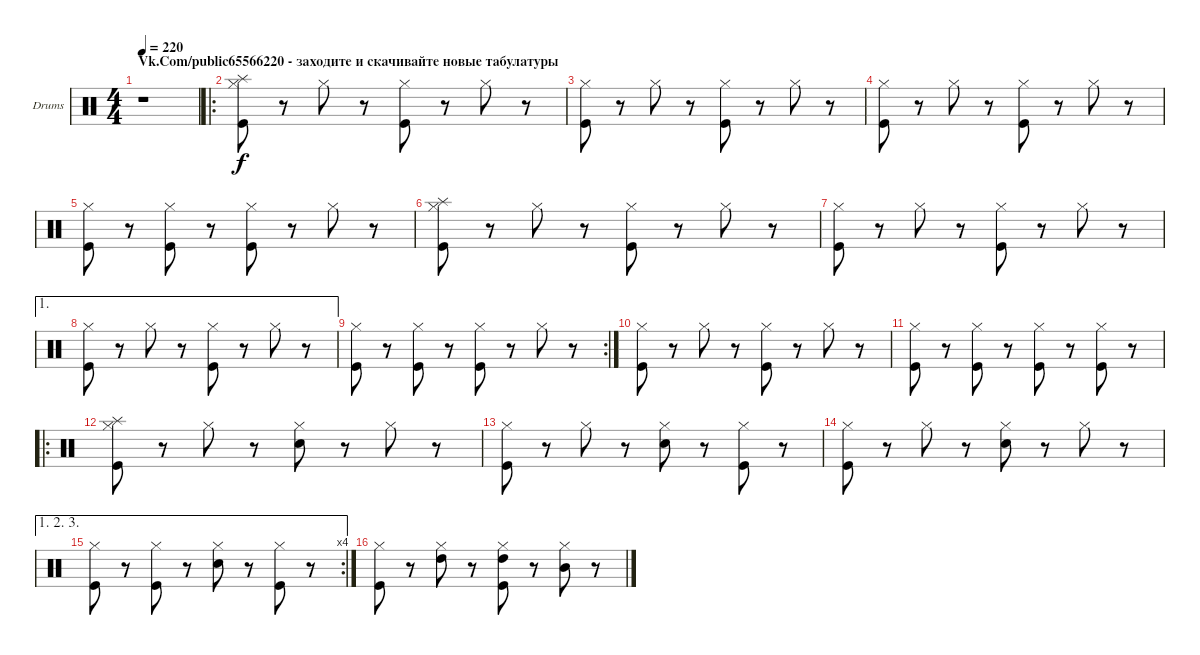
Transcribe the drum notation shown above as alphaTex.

\bracketExtendMode groupsimilarinstruments
\firstSystemTrackNameOrientation horizontal
\otherSystemsTrackNameOrientation horizontal
\track ("Ударные" "Drums") {instrument percussion}
\staff {score}
\articulation defaults
\ts (4 4)
\section ("" "Vk.Com/public65566220 - заходите и скачивайте новые табулатуры")
\tempo 220
\clef neutral
\ks c
r.1{dy f} |
\ro
("Hi-Hat (closed)" "Splash (hit)" "Kick (hit)").8 r.8 "Hi-Hat (closed)".8 r.8 ("Hi-Hat (closed)" "Kick (hit)").8 r.8 "Hi-Hat (closed)".8 r.8 |
("Hi-Hat (closed)" "Kick (hit)").8 r.8 "Hi-Hat (closed)".8 r.8 ("Hi-Hat (closed)" "Kick (hit)").8 r.8 "Hi-Hat (closed)".8 r.8 |
("Hi-Hat (closed)" "Kick (hit)").8 r.8 "Hi-Hat (closed)".8 r.8 ("Hi-Hat (closed)" "Kick (hit)").8 r.8 "Hi-Hat (closed)".8 r.8 |
("Hi-Hat (closed)" "Kick (hit)").8 r.8 ("Hi-Hat (closed)" "Kick (hit)").8 r.8 ("Hi-Hat (closed)" "Kick (hit)").8 r.8 "Hi-Hat (closed)".8 r.8 |
("Hi-Hat (closed)" "Splash (hit)" "Kick (hit)").8 r.8 "Hi-Hat (closed)".8 r.8 ("Hi-Hat (closed)" "Kick (hit)").8 r.8 "Hi-Hat (closed)".8 r.8 |
("Hi-Hat (closed)" "Kick (hit)").8 r.8 "Hi-Hat (closed)".8 r.8 ("Hi-Hat (closed)" "Kick (hit)").8 r.8 "Hi-Hat (closed)".8 r.8 |
\ae 1
("Hi-Hat (closed)" "Kick (hit)").8 r.8 "Hi-Hat (closed)".8 r.8 ("Hi-Hat (closed)" "Kick (hit)").8 r.8 "Hi-Hat (closed)".8 r.8 |
\rc 2
("Hi-Hat (closed)" "Kick (hit)").8 r.8 ("Hi-Hat (closed)" "Kick (hit)").8 r.8 ("Hi-Hat (closed)" "Kick (hit)").8 r.8 "Hi-Hat (closed)".8 r.8 |
("Hi-Hat (closed)" "Kick (hit)").8 r.8 "Hi-Hat (closed)".8 r.8 ("Hi-Hat (closed)" "Kick (hit)").8 r.8 "Hi-Hat (closed)".8 r.8 |
("Hi-Hat (closed)" "Kick (hit)").8 r.8 ("Hi-Hat (closed)" "Kick (hit)").8 r.8 ("Hi-Hat (closed)" "Kick (hit)").8 r.8 ("Hi-Hat (closed)" "Kick (hit)").8 r.8 |
\ro
("Hi-Hat (closed)" "Splash (hit)" "Kick (hit)").8 r.8 "Hi-Hat (closed)".8 r.8 ("Hi-Hat (closed)" "Snare (hit) 2").8 r.8 "Hi-Hat (closed)".8 r.8 |
("Hi-Hat (closed)" "Kick (hit)").8 r.8 "Hi-Hat (closed)".8 r.8 ("Hi-Hat (closed)" "Snare (hit) 2").8 r.8 ("Hi-Hat (closed)" "Kick (hit)").8 r.8 |
("Hi-Hat (closed)" "Kick (hit)").8 r.8 "Hi-Hat (closed)".8 r.8 ("Hi-Hat (closed)" "Snare (hit) 2").8 r.8 "Hi-Hat (closed)".8 r.8 |
\ae (1 2 3)
\rc 4
("Hi-Hat (closed)" "Kick (hit)").8 r.8 ("Hi-Hat (closed)" "Kick (hit)").8 r.8 ("Hi-Hat (closed)" "Snare (hit) 2").8 r.8 ("Hi-Hat (closed)" "Kick (hit)").8 r.8 |
("Hi-Hat (closed)" "Kick (hit)").8 r.8 ("Hi-Hat (closed)" "High Tom (hit)").8 r.8 ("Hi-Hat (closed)" "High Tom (hit)" "Kick (hit)").8 r.8 ("Hi-Hat (closed)" "Mid Tom (hit)").8 r.8
